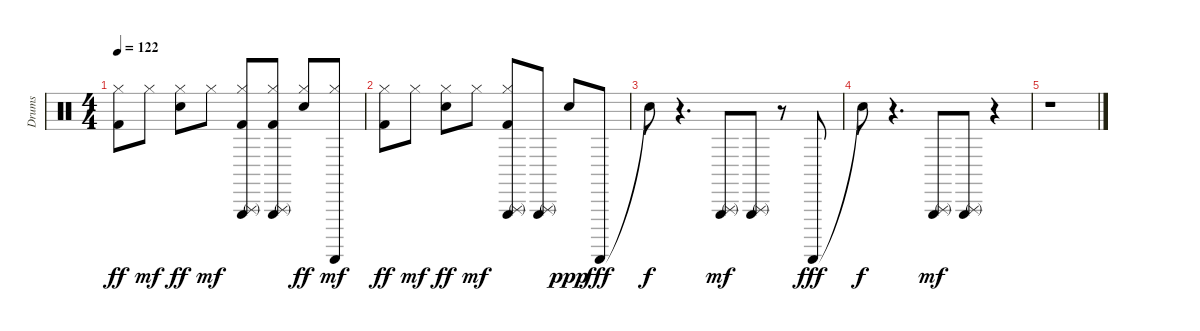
\track ("Drums" "Drums") {instrument percussion}
\staff {score}
\articulation defaults
\ts (4 4)
\tempo 122
\clef neutral
\ks c
("Kick (hit) 2" "Hi-Hat (closed)").8{dy ff} "Hi-Hat (closed)".8{dy mf} ("Snare (hit) 2" "Hi-Hat (closed)").8{dy ff} "Hi-Hat (closed)".8{dy mf} ("Kick (hit) 2" "Hi-Hat (closed)" "Triangle (rnute)" "Triangle (hit)").8 ("Kick (hit) 2" "Hi-Hat (closed)" "Triangle (rnute)" "Triangle (hit)").8 ("Snare (hit) 2" "Hi-Hat (closed)").8{dy ff} ("Hi-Hat (closed)" "Guiro (scrap-return)").8{dy mf} |
("Kick (hit) 2" "Hi-Hat (closed)").8{dy ff} "Hi-Hat (closed)".8{dy mf} ("Snare (hit) 2" "Hi-Hat (closed)").8{dy ff} "Hi-Hat (closed)".8{dy mf} ("Kick (hit) 2" "Hi-Hat (closed)" "Triangle (rnute)" "Triangle (hit)").8 ("Triangle (rnute)" "Triangle (hit)").8 "Snare (hit) 2".8{dy ppp} "Guiro (scrap-return)".8{dy fff} |
"Snare (hit)"{t}.8{dy f} r.4{d} ("Triangle (rnute)" "Triangle (hit)").8{dy mf} ("Triangle (rnute)" "Triangle (hit)").8 r.8 "Guiro (scrap-return)".8{dy fff} |
"Snare (hit)"{t}.8{dy f} r.4{d} ("Triangle (rnute)" "Triangle (hit)").8{dy mf} ("Triangle (rnute)" "Triangle (hit)").8 r.4 |
r.1
